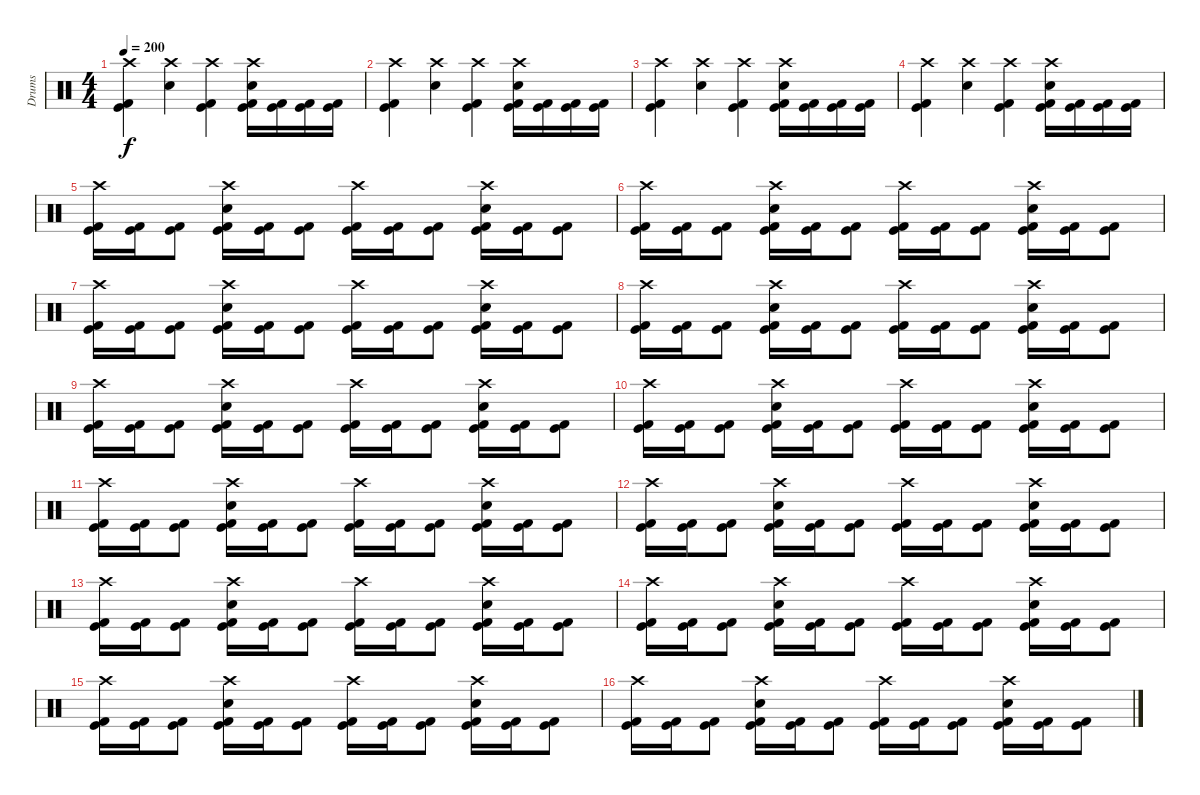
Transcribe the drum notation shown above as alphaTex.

\track ("Drums" "Drums") {instrument percussion}
\staff {score}
\articulation defaults
\ts (4 4)
\tempo 200
\clef neutral
\ks c
("Crash high (hit)" "Kick (hit) 2" "Kick (hit)").4{dy f} ("Crash high (hit)" "Electric Snare (hit)").4 ("Crash high (hit)" "Kick (hit) 2" "Kick (hit)").4 ("Crash high (hit)" "Kick (hit)" "Kick (hit) 2" "Electric Snare (hit)").16 ("Kick (hit)" "Kick (hit) 2").16 ("Kick (hit)" "Kick (hit) 2").16 ("Kick (hit)" "Kick (hit) 2").16 |
("Crash high (hit)" "Kick (hit) 2" "Kick (hit)").4 ("Crash high (hit)" "Electric Snare (hit)").4 ("Crash high (hit)" "Kick (hit) 2" "Kick (hit)").4 ("Crash high (hit)" "Kick (hit)" "Kick (hit) 2" "Electric Snare (hit)").16 ("Kick (hit)" "Kick (hit) 2").16 ("Kick (hit)" "Kick (hit) 2").16 ("Kick (hit)" "Kick (hit) 2").16 |
("Crash high (hit)" "Kick (hit) 2" "Kick (hit)").4 ("Crash high (hit)" "Electric Snare (hit)").4 ("Crash high (hit)" "Kick (hit) 2" "Kick (hit)").4 ("Crash high (hit)" "Kick (hit)" "Kick (hit) 2" "Electric Snare (hit)").16 ("Kick (hit)" "Kick (hit) 2").16 ("Kick (hit)" "Kick (hit) 2").16 ("Kick (hit)" "Kick (hit) 2").16 |
("Crash high (hit)" "Kick (hit) 2" "Kick (hit)").4 ("Crash high (hit)" "Electric Snare (hit)").4 ("Crash high (hit)" "Kick (hit) 2" "Kick (hit)").4 ("Crash high (hit)" "Kick (hit)" "Kick (hit) 2" "Electric Snare (hit)").16 ("Kick (hit)" "Kick (hit) 2").16 ("Kick (hit)" "Kick (hit) 2").16 ("Kick (hit)" "Kick (hit) 2").16 |
("Crash high (hit)" "Kick (hit) 2" "Kick (hit)").16 ("Kick (hit) 2" "Kick (hit)").16 ("Kick (hit) 2" "Kick (hit)").8 ("Crash high (hit)" "Electric Snare (hit)" "Kick (hit) 2" "Kick (hit)").16 ("Kick (hit) 2" "Kick (hit)").16 ("Kick (hit) 2" "Kick (hit)").8 ("Crash high (hit)" "Kick (hit) 2" "Kick (hit)").16 ("Kick (hit) 2" "Kick (hit)").16 ("Kick (hit) 2" "Kick (hit)").8 ("Crash high (hit)" "Electric Snare (hit)" "Kick (hit) 2" "Kick (hit)").16 ("Kick (hit) 2" "Kick (hit)").16 ("Kick (hit) 2" "Kick (hit)").8 |
("Crash high (hit)" "Kick (hit) 2" "Kick (hit)").16 ("Kick (hit) 2" "Kick (hit)").16 ("Kick (hit) 2" "Kick (hit)").8 ("Crash high (hit)" "Electric Snare (hit)" "Kick (hit) 2" "Kick (hit)").16 ("Kick (hit) 2" "Kick (hit)").16 ("Kick (hit) 2" "Kick (hit)").8 ("Crash high (hit)" "Kick (hit) 2" "Kick (hit)").16 ("Kick (hit) 2" "Kick (hit)").16 ("Kick (hit) 2" "Kick (hit)").8 ("Crash high (hit)" "Electric Snare (hit)" "Kick (hit) 2" "Kick (hit)").16 ("Kick (hit) 2" "Kick (hit)").16 ("Kick (hit) 2" "Kick (hit)").8 |
("Crash high (hit)" "Kick (hit) 2" "Kick (hit)").16 ("Kick (hit) 2" "Kick (hit)").16 ("Kick (hit) 2" "Kick (hit)").8 ("Crash high (hit)" "Electric Snare (hit)" "Kick (hit) 2" "Kick (hit)").16 ("Kick (hit) 2" "Kick (hit)").16 ("Kick (hit) 2" "Kick (hit)").8 ("Crash high (hit)" "Kick (hit) 2" "Kick (hit)").16 ("Kick (hit) 2" "Kick (hit)").16 ("Kick (hit) 2" "Kick (hit)").8 ("Crash high (hit)" "Electric Snare (hit)" "Kick (hit) 2" "Kick (hit)").16 ("Kick (hit) 2" "Kick (hit)").16 ("Kick (hit) 2" "Kick (hit)").8 |
("Crash high (hit)" "Kick (hit) 2" "Kick (hit)").16 ("Kick (hit) 2" "Kick (hit)").16 ("Kick (hit) 2" "Kick (hit)").8 ("Crash high (hit)" "Electric Snare (hit)" "Kick (hit) 2" "Kick (hit)").16 ("Kick (hit) 2" "Kick (hit)").16 ("Kick (hit) 2" "Kick (hit)").8 ("Crash high (hit)" "Kick (hit) 2" "Kick (hit)").16 ("Kick (hit) 2" "Kick (hit)").16 ("Kick (hit) 2" "Kick (hit)").8 ("Crash high (hit)" "Electric Snare (hit)" "Kick (hit) 2" "Kick (hit)").16 ("Kick (hit) 2" "Kick (hit)").16 ("Kick (hit) 2" "Kick (hit)").8 |
("Crash high (hit)" "Kick (hit) 2" "Kick (hit)").16 ("Kick (hit) 2" "Kick (hit)").16 ("Kick (hit) 2" "Kick (hit)").8 ("Crash high (hit)" "Electric Snare (hit)" "Kick (hit) 2" "Kick (hit)").16 ("Kick (hit) 2" "Kick (hit)").16 ("Kick (hit) 2" "Kick (hit)").8 ("Crash high (hit)" "Kick (hit) 2" "Kick (hit)").16 ("Kick (hit) 2" "Kick (hit)").16 ("Kick (hit) 2" "Kick (hit)").8 ("Crash high (hit)" "Electric Snare (hit)" "Kick (hit) 2" "Kick (hit)").16 ("Kick (hit) 2" "Kick (hit)").16 ("Kick (hit) 2" "Kick (hit)").8 |
("Crash high (hit)" "Kick (hit) 2" "Kick (hit)").16 ("Kick (hit) 2" "Kick (hit)").16 ("Kick (hit) 2" "Kick (hit)").8 ("Crash high (hit)" "Electric Snare (hit)" "Kick (hit) 2" "Kick (hit)").16 ("Kick (hit) 2" "Kick (hit)").16 ("Kick (hit) 2" "Kick (hit)").8 ("Crash high (hit)" "Kick (hit) 2" "Kick (hit)").16 ("Kick (hit) 2" "Kick (hit)").16 ("Kick (hit) 2" "Kick (hit)").8 ("Crash high (hit)" "Electric Snare (hit)" "Kick (hit) 2" "Kick (hit)").16 ("Kick (hit) 2" "Kick (hit)").16 ("Kick (hit) 2" "Kick (hit)").8 |
("Crash high (hit)" "Kick (hit) 2" "Kick (hit)").16 ("Kick (hit) 2" "Kick (hit)").16 ("Kick (hit) 2" "Kick (hit)").8 ("Crash high (hit)" "Electric Snare (hit)" "Kick (hit) 2" "Kick (hit)").16 ("Kick (hit) 2" "Kick (hit)").16 ("Kick (hit) 2" "Kick (hit)").8 ("Crash high (hit)" "Kick (hit) 2" "Kick (hit)").16 ("Kick (hit) 2" "Kick (hit)").16 ("Kick (hit) 2" "Kick (hit)").8 ("Crash high (hit)" "Electric Snare (hit)" "Kick (hit) 2" "Kick (hit)").16 ("Kick (hit) 2" "Kick (hit)").16 ("Kick (hit) 2" "Kick (hit)").8 |
("Crash high (hit)" "Kick (hit) 2" "Kick (hit)").16 ("Kick (hit) 2" "Kick (hit)").16 ("Kick (hit) 2" "Kick (hit)").8 ("Crash high (hit)" "Electric Snare (hit)" "Kick (hit) 2" "Kick (hit)").16 ("Kick (hit) 2" "Kick (hit)").16 ("Kick (hit) 2" "Kick (hit)").8 ("Crash high (hit)" "Kick (hit) 2" "Kick (hit)").16 ("Kick (hit) 2" "Kick (hit)").16 ("Kick (hit) 2" "Kick (hit)").8 ("Crash high (hit)" "Electric Snare (hit)" "Kick (hit) 2" "Kick (hit)").16 ("Kick (hit) 2" "Kick (hit)").16 ("Kick (hit) 2" "Kick (hit)").8 |
("Crash high (hit)" "Kick (hit) 2" "Kick (hit)").16 ("Kick (hit) 2" "Kick (hit)").16 ("Kick (hit) 2" "Kick (hit)").8 ("Crash high (hit)" "Electric Snare (hit)" "Kick (hit) 2" "Kick (hit)").16 ("Kick (hit) 2" "Kick (hit)").16 ("Kick (hit) 2" "Kick (hit)").8 ("Crash high (hit)" "Kick (hit) 2" "Kick (hit)").16 ("Kick (hit) 2" "Kick (hit)").16 ("Kick (hit) 2" "Kick (hit)").8 ("Crash high (hit)" "Electric Snare (hit)" "Kick (hit) 2" "Kick (hit)").16 ("Kick (hit) 2" "Kick (hit)").16 ("Kick (hit) 2" "Kick (hit)").8 |
("Crash high (hit)" "Kick (hit) 2" "Kick (hit)").16 ("Kick (hit) 2" "Kick (hit)").16 ("Kick (hit) 2" "Kick (hit)").8 ("Crash high (hit)" "Electric Snare (hit)" "Kick (hit) 2" "Kick (hit)").16 ("Kick (hit) 2" "Kick (hit)").16 ("Kick (hit) 2" "Kick (hit)").8 ("Crash high (hit)" "Kick (hit) 2" "Kick (hit)").16 ("Kick (hit) 2" "Kick (hit)").16 ("Kick (hit) 2" "Kick (hit)").8 ("Crash high (hit)" "Electric Snare (hit)" "Kick (hit) 2" "Kick (hit)").16 ("Kick (hit) 2" "Kick (hit)").16 ("Kick (hit) 2" "Kick (hit)").8 |
("Crash high (hit)" "Kick (hit) 2" "Kick (hit)").16 ("Kick (hit) 2" "Kick (hit)").16 ("Kick (hit) 2" "Kick (hit)").8 ("Crash high (hit)" "Electric Snare (hit)" "Kick (hit) 2" "Kick (hit)").16 ("Kick (hit) 2" "Kick (hit)").16 ("Kick (hit) 2" "Kick (hit)").8 ("Crash high (hit)" "Kick (hit) 2" "Kick (hit)").16 ("Kick (hit) 2" "Kick (hit)").16 ("Kick (hit) 2" "Kick (hit)").8 ("Crash high (hit)" "Electric Snare (hit)" "Kick (hit) 2" "Kick (hit)").16 ("Kick (hit) 2" "Kick (hit)").16 ("Kick (hit) 2" "Kick (hit)").8 |
("Crash high (hit)" "Kick (hit) 2" "Kick (hit)").16 ("Kick (hit) 2" "Kick (hit)").16 ("Kick (hit) 2" "Kick (hit)").8 ("Crash high (hit)" "Electric Snare (hit)" "Kick (hit) 2" "Kick (hit)").16 ("Kick (hit) 2" "Kick (hit)").16 ("Kick (hit) 2" "Kick (hit)").8 ("Crash high (hit)" "Kick (hit) 2" "Kick (hit)").16 ("Kick (hit) 2" "Kick (hit)").16 ("Kick (hit) 2" "Kick (hit)").8 ("Crash high (hit)" "Electric Snare (hit)" "Kick (hit) 2" "Kick (hit)").16 ("Kick (hit) 2" "Kick (hit)").16 ("Kick (hit) 2" "Kick (hit)").8
